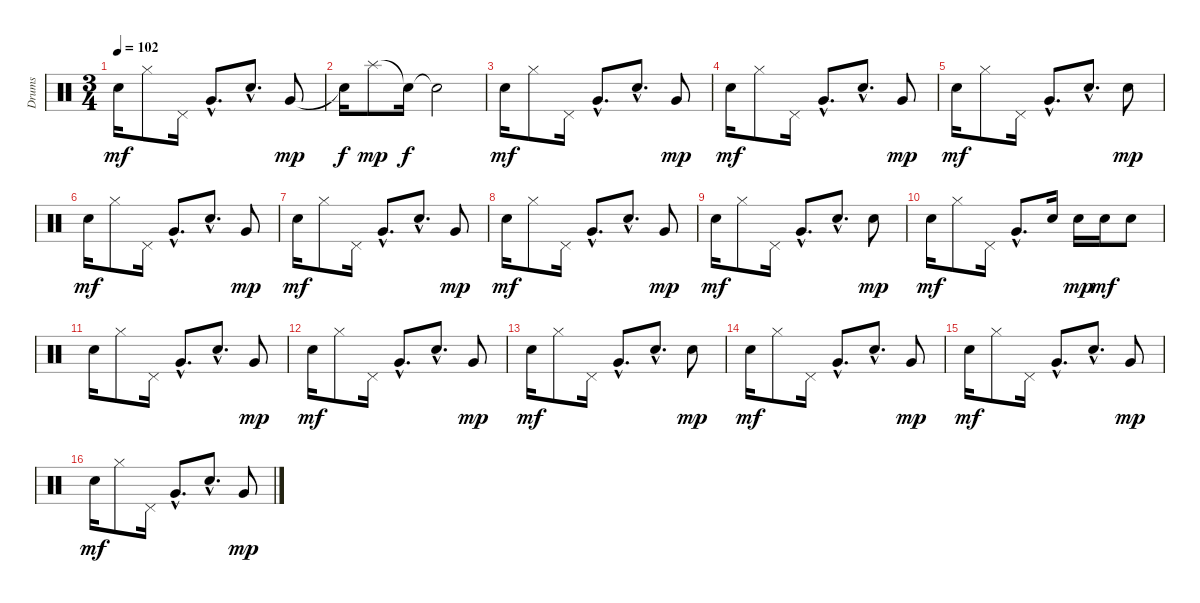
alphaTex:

\track ("Drums" "Drums") {instrument percussion}
\staff {score}
\articulation defaults
\ts (3 4)
\tempo 102
\clef neutral
\ks c "Electric Snare (hit)".16{dy mf volume 16} "Hi-Hat (closed)".8 "Pedal Hi-Hat (hit)".16 "Very Low Tom (hit)"{hac}.8{d} "Electric Snare (hit)"{hac}.8{d} "Very Low Tom (hit)".8{dy mp}
|
"Snare (hit)"{t}.16{dy f} "Splash (hit)".8{dy mp} "Snare (hit)"{t}.16{dy f} "Snare (hit)"{t}.2 |
"Electric Snare (hit)".16{dy mf volume 12} "Hi-Hat (closed)".8 "Pedal Hi-Hat (hit)".16 "Very Low Tom (hit)"{hac}.8{d} "Electric Snare (hit)"{hac}.8{d} "Very Low Tom (hit)".8{dy mp} |
"Electric Snare (hit)".16{dy mf} "Hi-Hat (closed)".8 "Pedal Hi-Hat (hit)".16 "Very Low Tom (hit)"{hac}.8{d} "Electric Snare (hit)"{hac}.8{d} "Very Low Tom (hit)".8{dy mp} |
"Electric Snare (hit)".16{dy mf} "Hi-Hat (closed)".8 "Pedal Hi-Hat (hit)".16 "Very Low Tom (hit)"{hac}.8{d} "Electric Snare (hit)"{hac}.8{d} "Electric Snare (hit)".8{dy mp} |
"Electric Snare (hit)".16{dy mf} "Hi-Hat (closed)".8 "Pedal Hi-Hat (hit)".16 "Very Low Tom (hit)"{hac}.8{d} "Electric Snare (hit)"{hac}.8{d} "Very Low Tom (hit)".8{dy mp} |
"Electric Snare (hit)".16{dy mf} "Hi-Hat (closed)".8 "Pedal Hi-Hat (hit)".16 "Very Low Tom (hit)"{hac}.8{d} "Electric Snare (hit)"{hac}.8{d} "Very Low Tom (hit)".8{dy mp} |
"Electric Snare (hit)".16{dy mf} "Hi-Hat (closed)".8 "Pedal Hi-Hat (hit)".16 "Very Low Tom (hit)"{hac}.8{d} "Electric Snare (hit)"{hac}.8{d} "Very Low Tom (hit)".8{dy mp} |
"Electric Snare (hit)".16{dy mf} "Hi-Hat (closed)".8 "Pedal Hi-Hat (hit)".16 "Very Low Tom (hit)"{hac}.8{d} "Electric Snare (hit)"{hac}.8{d} "Electric Snare (hit)".8{dy mp} |
"Electric Snare (hit)".16{dy mf} "Hi-Hat (closed)".8 "Pedal Hi-Hat (hit)".16 "Very Low Tom (hit)"{hac}.8{d} "Electric Snare (hit)".16 "Electric Snare (hit)".16{dy mp} "Electric Snare (hit)".16{dy mf} "Electric Snare (hit)".8 |
"Electric Snare (hit)".16 "Hi-Hat (closed)".8 "Pedal Hi-Hat (hit)".16 "Very Low Tom (hit)"{hac}.8{d} "Electric Snare (hit)"{hac}.8{d} "Very Low Tom (hit)".8{dy mp} |
"Electric Snare (hit)".16{dy mf} "Hi-Hat (closed)".8 "Pedal Hi-Hat (hit)".16 "Very Low Tom (hit)"{hac}.8{d} "Electric Snare (hit)"{hac}.8{d} "Very Low Tom (hit)".8{dy mp} |
"Electric Snare (hit)".16{dy mf} "Hi-Hat (closed)".8 "Pedal Hi-Hat (hit)".16 "Very Low Tom (hit)"{hac}.8{d} "Electric Snare (hit)"{hac}.8{d} "Electric Snare (hit)".8{dy mp} |
"Electric Snare (hit)".16{dy mf} "Hi-Hat (closed)".8 "Pedal Hi-Hat (hit)".16 "Very Low Tom (hit)"{hac}.8{d} "Electric Snare (hit)"{hac}.8{d} "Very Low Tom (hit)".8{dy mp} |
"Electric Snare (hit)".16{dy mf} "Hi-Hat (closed)".8 "Pedal Hi-Hat (hit)".16 "Very Low Tom (hit)"{hac}.8{d} "Electric Snare (hit)"{hac}.8{d} "Very Low Tom (hit)".8{dy mp} |
"Electric Snare (hit)".16{dy mf} "Hi-Hat (closed)".8 "Pedal Hi-Hat (hit)".16 "Very Low Tom (hit)"{hac}.8{d} "Electric Snare (hit)"{hac}.8{d} "Very Low Tom (hit)".8{dy mp}
